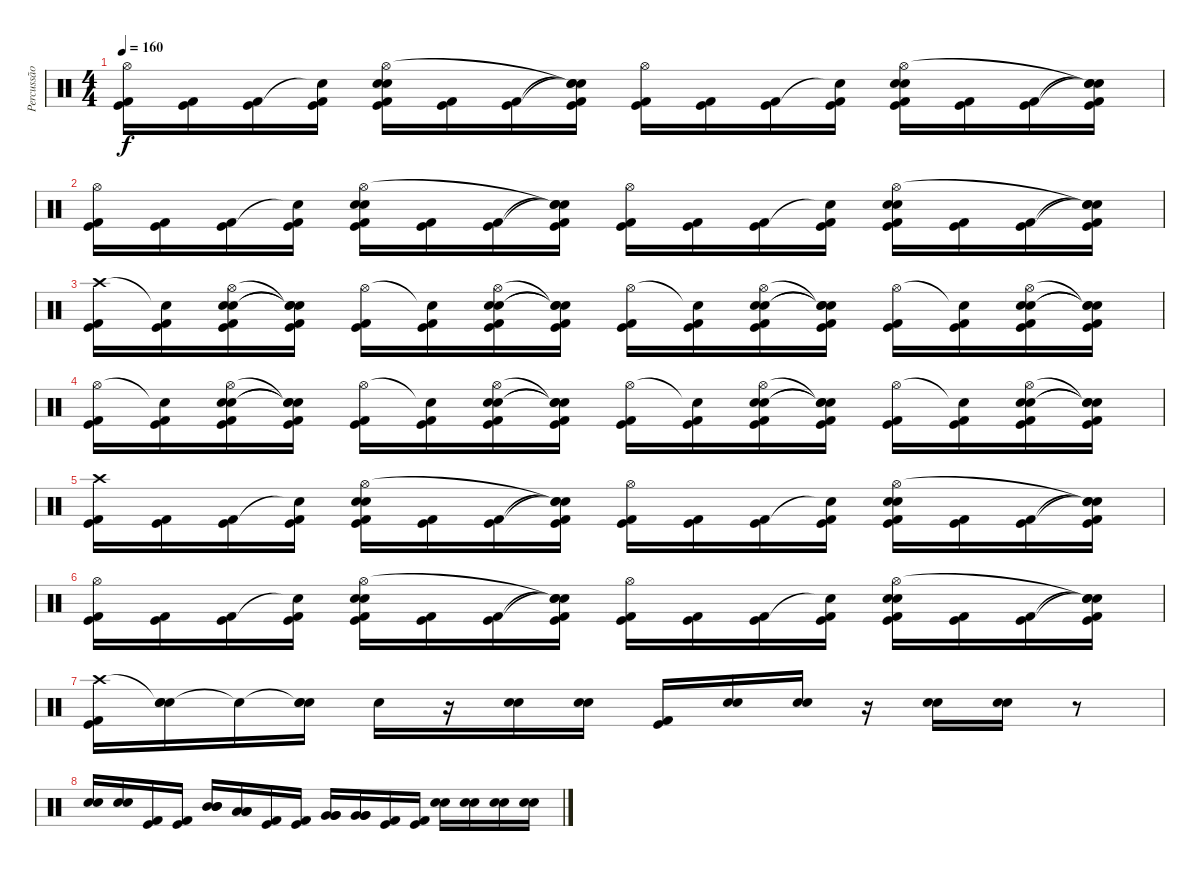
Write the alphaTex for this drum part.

\track ("Percussão" "Percussão") {instrument percussion}
\staff {score}
\articulation defaults
\ts (4 4)
\tempo 160
\clef neutral
\ks c
("Hi-Hat (open)" "Kick (hit)" "Kick (hit) 2").16{dy f} ("Kick (hit)" "Kick (hit) 2").16 ("Kick (hit)" "Kick (hit) 2").16 ("Snare (hit)"{t} "Kick (hit)" "Kick (hit) 2").16 ("Electric Snare (hit)" "Snare (hit) 2" "Hi-Hat (open)" "Kick (hit)" "Kick (hit) 2").16 ("Kick (hit)" "Kick (hit) 2").16 ("Kick (hit)" "Kick (hit) 2").16 ("Snare (hit)"{t} "Snare (hit)"{t} "Snare (hit)"{t} "Kick (hit)" "Kick (hit) 2").16 ("Hi-Hat (open)" "Kick (hit)" "Kick (hit) 2").16 ("Kick (hit)" "Kick (hit) 2").16 ("Kick (hit)" "Kick (hit) 2").16 ("Snare (hit)"{t} "Kick (hit)" "Kick (hit) 2").16 ("Electric Snare (hit)" "Snare (hit) 2" "Hi-Hat (open)" "Kick (hit)" "Kick (hit) 2").16 ("Kick (hit)" "Kick (hit) 2").16 ("Kick (hit)" "Kick (hit) 2").16 ("Snare (hit)"{t} "Snare (hit)"{t} "Snare (hit)"{t} "Kick (hit)" "Kick (hit) 2").16 |
("Hi-Hat (open)" "Kick (hit)" "Kick (hit) 2").16 ("Kick (hit)" "Kick (hit) 2").16 ("Kick (hit)" "Kick (hit) 2").16 ("Snare (hit)"{t} "Kick (hit)" "Kick (hit) 2").16 ("Electric Snare (hit)" "Snare (hit) 2" "Hi-Hat (open)" "Kick (hit)" "Kick (hit) 2").16 ("Kick (hit)" "Kick (hit) 2").16 ("Kick (hit)" "Kick (hit) 2").16 ("Snare (hit)"{t} "Snare (hit)"{t} "Snare (hit)"{t} "Kick (hit)" "Kick (hit) 2").16 ("Hi-Hat (open)" "Kick (hit)" "Kick (hit) 2").16 ("Kick (hit)" "Kick (hit) 2").16 ("Kick (hit)" "Kick (hit) 2").16 ("Snare (hit)"{t} "Kick (hit)" "Kick (hit) 2").16 ("Electric Snare (hit)" "Snare (hit) 2" "Hi-Hat (open)" "Kick (hit)" "Kick (hit) 2").16 ("Kick (hit)" "Kick (hit) 2").16 ("Kick (hit)" "Kick (hit) 2").16 ("Snare (hit)"{t} "Snare (hit)"{t} "Snare (hit)"{t} "Kick (hit)" "Kick (hit) 2").16 |
("Crash high (hit)" "Kick (hit) 2" "Kick (hit)").16 ("Snare (hit)"{t} "Kick (hit) 2" "Kick (hit)").16 ("Snare (hit) 2" "Electric Snare (hit)" "Hi-Hat (open)" "Kick (hit) 2" "Kick (hit)").16 ("Snare (hit)"{t} "Snare (hit)"{t} "Snare (hit)"{t} "Kick (hit) 2" "Kick (hit)").16 ("Hi-Hat (open)" "Kick (hit) 2" "Kick (hit)").16 ("Snare (hit)"{t} "Kick (hit) 2" "Kick (hit)").16 ("Snare (hit) 2" "Electric Snare (hit)" "Hi-Hat (open)" "Kick (hit) 2" "Kick (hit)").16 ("Snare (hit)"{t} "Snare (hit)"{t} "Snare (hit)"{t} "Kick (hit) 2" "Kick (hit)").16 ("Hi-Hat (open)" "Kick (hit) 2" "Kick (hit)").16 ("Snare (hit)"{t} "Kick (hit) 2" "Kick (hit)").16 ("Snare (hit) 2" "Electric Snare (hit)" "Hi-Hat (open)" "Kick (hit) 2" "Kick (hit)").16 ("Snare (hit)"{t} "Snare (hit)"{t} "Snare (hit)"{t} "Kick (hit) 2" "Kick (hit)").16 ("Hi-Hat (open)" "Kick (hit) 2" "Kick (hit)").16 ("Snare (hit)"{t} "Kick (hit) 2" "Kick (hit)").16 ("Snare (hit) 2" "Electric Snare (hit)" "Hi-Hat (open)" "Kick (hit) 2" "Kick (hit)").16 ("Snare (hit)"{t} "Snare (hit)"{t} "Snare (hit)"{t} "Kick (hit) 2" "Kick (hit)").16 |
("Hi-Hat (open)" "Kick (hit) 2" "Kick (hit)").16 ("Snare (hit)"{t} "Kick (hit) 2" "Kick (hit)").16 ("Snare (hit) 2" "Electric Snare (hit)" "Hi-Hat (open)" "Kick (hit) 2" "Kick (hit)").16 ("Snare (hit)"{t} "Snare (hit)"{t} "Snare (hit)"{t} "Kick (hit) 2" "Kick (hit)").16 ("Hi-Hat (open)" "Kick (hit) 2" "Kick (hit)").16 ("Snare (hit)"{t} "Kick (hit) 2" "Kick (hit)").16 ("Snare (hit) 2" "Electric Snare (hit)" "Hi-Hat (open)" "Kick (hit) 2" "Kick (hit)").16 ("Snare (hit)"{t} "Snare (hit)"{t} "Snare (hit)"{t} "Kick (hit) 2" "Kick (hit)").16 ("Hi-Hat (open)" "Kick (hit) 2" "Kick (hit)").16 ("Snare (hit)"{t} "Kick (hit) 2" "Kick (hit)").16 ("Snare (hit) 2" "Electric Snare (hit)" "Hi-Hat (open)" "Kick (hit) 2" "Kick (hit)").16 ("Snare (hit)"{t} "Snare (hit)"{t} "Snare (hit)"{t} "Kick (hit) 2" "Kick (hit)").16 ("Hi-Hat (open)" "Kick (hit) 2" "Kick (hit)").16 ("Snare (hit)"{t} "Kick (hit) 2" "Kick (hit)").16 ("Snare (hit) 2" "Electric Snare (hit)" "Hi-Hat (open)" "Kick (hit) 2" "Kick (hit)").16 ("Snare (hit)"{t} "Snare (hit)"{t} "Snare (hit)"{t} "Kick (hit) 2" "Kick (hit)").16 |
("Crash high (hit)" "Kick (hit)" "Kick (hit) 2").16 ("Kick (hit)" "Kick (hit) 2").16 ("Kick (hit)" "Kick (hit) 2").16 ("Snare (hit)"{t} "Kick (hit)" "Kick (hit) 2").16 ("Electric Snare (hit)" "Snare (hit) 2" "Hi-Hat (open)" "Kick (hit)" "Kick (hit) 2").16 ("Kick (hit)" "Kick (hit) 2").16 ("Kick (hit)" "Kick (hit) 2").16 ("Snare (hit)"{t} "Snare (hit)"{t} "Snare (hit)"{t} "Kick (hit)" "Kick (hit) 2").16 ("Hi-Hat (open)" "Kick (hit)" "Kick (hit) 2").16 ("Kick (hit)" "Kick (hit) 2").16 ("Kick (hit)" "Kick (hit) 2").16 ("Snare (hit)"{t} "Kick (hit)" "Kick (hit) 2").16 ("Electric Snare (hit)" "Snare (hit) 2" "Hi-Hat (open)" "Kick (hit)" "Kick (hit) 2").16 ("Kick (hit)" "Kick (hit) 2").16 ("Kick (hit)" "Kick (hit) 2").16 ("Snare (hit)"{t} "Snare (hit)"{t} "Snare (hit)"{t} "Kick (hit)" "Kick (hit) 2").16 |
("Hi-Hat (open)" "Kick (hit)" "Kick (hit) 2").16 ("Kick (hit)" "Kick (hit) 2").16 ("Kick (hit)" "Kick (hit) 2").16 ("Snare (hit)"{t} "Kick (hit)" "Kick (hit) 2").16 ("Electric Snare (hit)" "Snare (hit) 2" "Hi-Hat (open)" "Kick (hit)" "Kick (hit) 2").16 ("Kick (hit)" "Kick (hit) 2").16 ("Kick (hit)" "Kick (hit) 2").16 ("Snare (hit)"{t} "Snare (hit)"{t} "Snare (hit)"{t} "Kick (hit)" "Kick (hit) 2").16 ("Hi-Hat (open)" "Kick (hit)" "Kick (hit) 2").16 ("Kick (hit)" "Kick (hit) 2").16 ("Kick (hit)" "Kick (hit) 2").16 ("Snare (hit)"{t} "Kick (hit)" "Kick (hit) 2").16 ("Electric Snare (hit)" "Snare (hit) 2" "Hi-Hat (open)" "Kick (hit)" "Kick (hit) 2").16 ("Kick (hit)" "Kick (hit) 2").16 ("Kick (hit)" "Kick (hit) 2").16 ("Snare (hit)"{t} "Snare (hit)"{t} "Snare (hit)"{t} "Kick (hit)" "Kick (hit) 2").16 |
("Crash high (hit)" "Kick (hit) 2" "Kick (hit)").16 ("Snare (hit)"{t} "Snare (hit) 2" "Electric Snare (hit)").16 "Snare (hit)"{t}.16 ("Snare (hit)"{t} "Snare (hit) 2" "Electric Snare (hit)").16 "Electric Snare (hit)".16 r.16 ("Snare (hit) 2" "Electric Snare (hit)").16 ("Snare (hit) 2" "Electric Snare (hit)").16 ("Kick (hit) 2" "Kick (hit)").16 ("Snare (hit) 2" "Electric Snare (hit)").16 ("Snare (hit) 2" "Electric Snare (hit)").16 r.16 ("Snare (hit) 2" "Electric Snare (hit)").16 ("Snare (hit) 2" "Electric Snare (hit)").16 r.8 |
("Snare (hit) 2" "Electric Snare (hit)").16 ("Snare (hit) 2" "Electric Snare (hit)").16 ("Kick (hit) 2" "Kick (hit)").16 ("Kick (hit) 2" "Kick (hit)").16 ("Mid Tom (hit)" "Mid Tom (hit)" "Mid Tom (hit)").16 ("Low Tom (hit)" "Low Tom (hit)" "Low Tom (hit)").16 ("Kick (hit) 2" "Kick (hit)").16 ("Kick (hit) 2" "Kick (hit)").16 ("Very Low Tom (hit)" "Very Low Tom (hit)" "Very Low Tom (hit)").16 ("Very Low Tom (hit)" "Very Low Tom (hit)" "Very Low Tom (hit)").16 ("Kick (hit) 2" "Kick (hit)").16 ("Kick (hit) 2" "Kick (hit)").16 ("Snare (hit) 2" "Electric Snare (hit)").16 ("Snare (hit) 2" "Electric Snare (hit)").16 ("Snare (hit) 2" "Electric Snare (hit)").16 ("Snare (hit) 2" "Electric Snare (hit)").16
